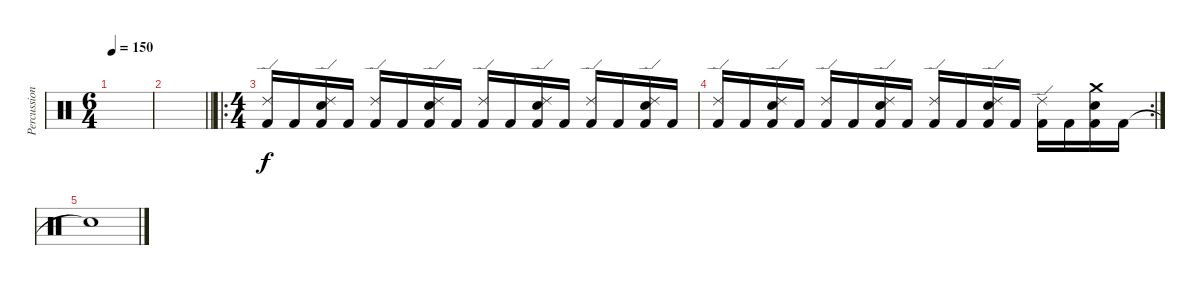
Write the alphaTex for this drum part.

\track ("Percussion" "Percussion") {instrument percussion}
\staff {score}
\articulation defaults
\ts (6 4)
\tempo 150
\clef neutral
\ks c
|
\barLineRight lightlight
|
\ro
\ts (4 4)
("Ride (edge) 2" "Kick (hit) 2").16 "Kick (hit) 2".16 ("Ride (edge) 2" "Electric Snare (hit)" "Kick (hit) 2").16 "Kick (hit) 2".16 ("Ride (edge) 2" "Kick (hit) 2").16 "Kick (hit) 2".16 ("Ride (edge) 2" "Electric Snare (hit)" "Kick (hit) 2").16 "Kick (hit) 2".16 ("Ride (edge) 2" "Kick (hit) 2").16 "Kick (hit) 2".16 ("Ride (edge) 2" "Electric Snare (hit)" "Kick (hit) 2").16 "Kick (hit) 2".16 ("Ride (edge) 2" "Kick (hit) 2").16 "Kick (hit) 2".16 ("Ride (edge) 2" "Electric Snare (hit)" "Kick (hit) 2").16 "Kick (hit) 2".16 |
\rc 2
("Ride (edge) 2" "Kick (hit) 2").16 "Kick (hit) 2".16 ("Ride (edge) 2" "Electric Snare (hit)" "Kick (hit) 2").16 "Kick (hit) 2".16 ("Ride (edge) 2" "Kick (hit) 2").16 "Kick (hit) 2".16 ("Ride (edge) 2" "Electric Snare (hit)" "Kick (hit) 2").16 "Kick (hit) 2".16 ("Ride (edge) 2" "Kick (hit) 2").16 "Kick (hit) 2".16 ("Ride (edge) 2" "Electric Snare (hit)" "Kick (hit) 2").16 "Kick (hit) 2".16 ("Ride (edge) 2" "Kick (hit) 2").16 "Kick (hit) 2".16 ("Crash medium (hit)" "Electric Snare (hit)" "Kick (hit) 2").16 "Kick (hit) 2".16 |
"Snare (hit)"{t}.1
